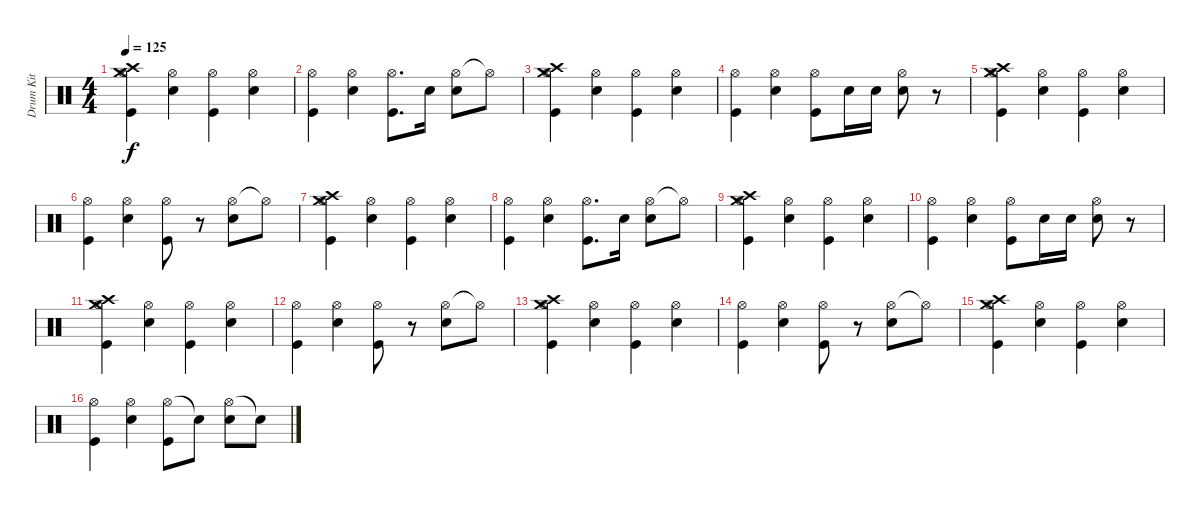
\track ("Drum Kit" "Drum Kit") {instrument percussion}
\staff {score}
\articulation defaults
\ts (4 4)
\tempo 125
\clef neutral
\ks c
("Crash high (hit)" "Hi-Hat (open)" "Crash medium (hit)" "Kick (hit)").4{dy f} ("Hi-Hat (open)" "Electric Snare (hit)").4 ("Hi-Hat (open)" "Kick (hit)").4 ("Hi-Hat (open)" "Electric Snare (hit)").4 |
("Hi-Hat (open)" "Kick (hit)").4 ("Hi-Hat (open)" "Electric Snare (hit)").4 ("Hi-Hat (open)" "Kick (hit)").8{d} "Electric Snare (hit)".16 ("Hi-Hat (open)" "Electric Snare (hit)").8 "Hi-Hat (open)"{t}.8 |
("Crash high (hit)" "Hi-Hat (open)" "Crash medium (hit)" "Kick (hit)").4 ("Hi-Hat (open)" "Electric Snare (hit)").4 ("Hi-Hat (open)" "Kick (hit)").4 ("Hi-Hat (open)" "Electric Snare (hit)").4 |
("Hi-Hat (open)" "Kick (hit)").4 ("Hi-Hat (open)" "Electric Snare (hit)").4 ("Hi-Hat (open)" "Kick (hit)").8 "Electric Snare (hit)".16 "Electric Snare (hit)".16 ("Hi-Hat (open)" "Electric Snare (hit)").8 r.8 |
("Crash high (hit)" "Hi-Hat (open)" "Crash medium (hit)" "Kick (hit)").4 ("Hi-Hat (open)" "Electric Snare (hit)").4 ("Hi-Hat (open)" "Kick (hit)").4 ("Hi-Hat (open)" "Electric Snare (hit)").4 |
("Hi-Hat (open)" "Kick (hit)").4 ("Hi-Hat (open)" "Electric Snare (hit)").4 ("Hi-Hat (open)" "Kick (hit)").8 r.8 ("Hi-Hat (open)" "Electric Snare (hit)").8 "Hi-Hat (open)"{t}.8 |
("Crash high (hit)" "Hi-Hat (open)" "Crash medium (hit)" "Kick (hit)").4 ("Hi-Hat (open)" "Electric Snare (hit)").4 ("Hi-Hat (open)" "Kick (hit)").4 ("Hi-Hat (open)" "Electric Snare (hit)").4 |
("Hi-Hat (open)" "Kick (hit)").4 ("Hi-Hat (open)" "Electric Snare (hit)").4 ("Hi-Hat (open)" "Kick (hit)").8{d} "Electric Snare (hit)".16 ("Hi-Hat (open)" "Electric Snare (hit)").8 "Hi-Hat (open)"{t}.8 |
("Crash high (hit)" "Hi-Hat (open)" "Crash medium (hit)" "Kick (hit)").4 ("Hi-Hat (open)" "Electric Snare (hit)").4 ("Hi-Hat (open)" "Kick (hit)").4 ("Hi-Hat (open)" "Electric Snare (hit)").4 |
("Hi-Hat (open)" "Kick (hit)").4 ("Hi-Hat (open)" "Electric Snare (hit)").4 ("Hi-Hat (open)" "Kick (hit)").8 "Electric Snare (hit)".16 "Electric Snare (hit)".16 ("Hi-Hat (open)" "Electric Snare (hit)").8 r.8 |
("Crash high (hit)" "Hi-Hat (open)" "Crash medium (hit)" "Kick (hit)").4 ("Hi-Hat (open)" "Electric Snare (hit)").4 ("Hi-Hat (open)" "Kick (hit)").4 ("Hi-Hat (open)" "Electric Snare (hit)").4 |
("Hi-Hat (open)" "Kick (hit)").4 ("Hi-Hat (open)" "Electric Snare (hit)").4 ("Hi-Hat (open)" "Kick (hit)").8 r.8 ("Hi-Hat (open)" "Electric Snare (hit)").8 "Hi-Hat (open)"{t}.8 |
("Crash high (hit)" "Hi-Hat (open)" "Crash medium (hit)" "Kick (hit)").4 ("Hi-Hat (open)" "Electric Snare (hit)").4 ("Hi-Hat (open)" "Kick (hit)").4 ("Hi-Hat (open)" "Electric Snare (hit)").4 |
("Hi-Hat (open)" "Kick (hit)").4 ("Hi-Hat (open)" "Electric Snare (hit)").4 ("Hi-Hat (open)" "Kick (hit)").8 r.8 ("Hi-Hat (open)" "Electric Snare (hit)").8 "Hi-Hat (open)"{t}.8 |
("Crash high (hit)" "Hi-Hat (open)" "Crash medium (hit)" "Kick (hit)").4 ("Hi-Hat (open)" "Electric Snare (hit)").4 ("Hi-Hat (open)" "Kick (hit)").4 ("Hi-Hat (open)" "Electric Snare (hit)").4 |
("Hi-Hat (open)" "Kick (hit)").4 ("Hi-Hat (open)" "Electric Snare (hit)").4 ("Hi-Hat (open)" "Kick (hit)").8 "Snare (hit)"{t}.8 ("Hi-Hat (open)" "Electric Snare (hit)").8 "Snare (hit)"{t}.8
